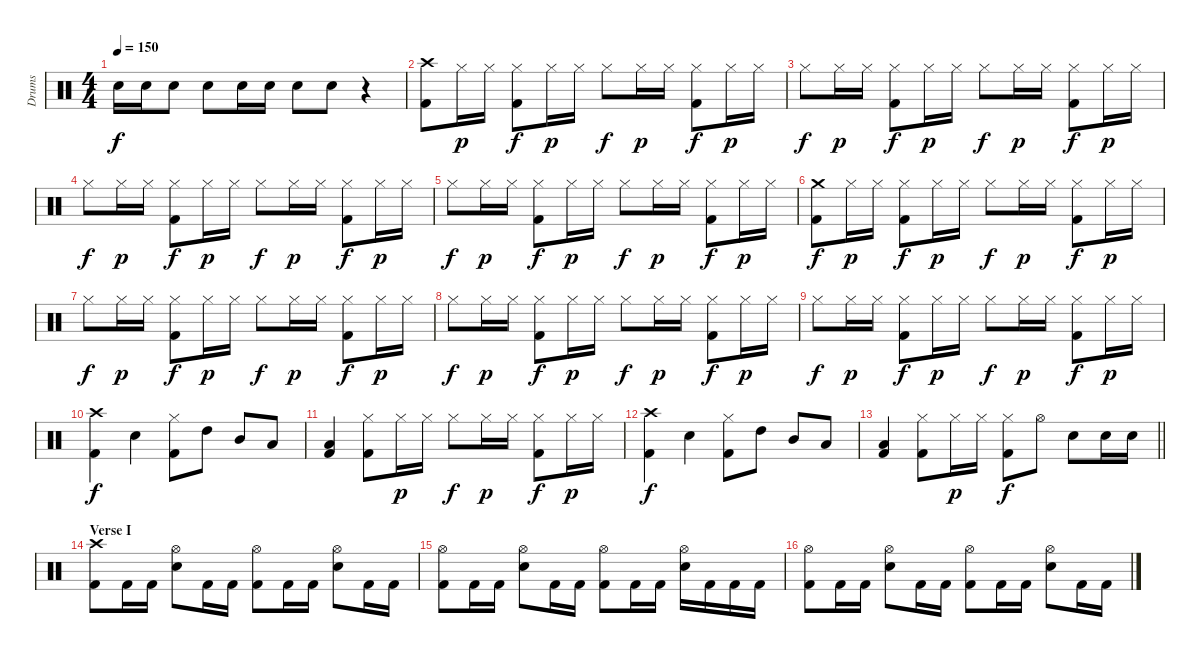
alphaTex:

\track ("Drums" "Drums") {instrument percussion}
\staff {score}
\articulation defaults
\ts (4 4)
\tempo 150
\clef neutral
\ks c "Snare (hit) 2".16{dy f} "Snare (hit) 2".16 "Snare (hit) 2".8 "Snare (hit) 2".8 "Snare (hit) 2".16 "Snare (hit) 2".16 "Snare (hit) 2".8 "Snare (hit) 2".8
r.4 |
("Crash high (hit)" "Kick (hit) 2").8 "Hi-Hat (closed)".16{dy p} "Hi-Hat (closed)".16 ("Hi-Hat (closed)" "Kick (hit) 2").8{dy f} "Hi-Hat (closed)".16{dy p} "Hi-Hat (closed)".16 "Hi-Hat (closed)".8{dy f} "Hi-Hat (closed)".16{dy p} "Hi-Hat (closed)".16 ("Hi-Hat (closed)" "Kick (hit) 2").8{dy f} "Hi-Hat (closed)".16{dy p} "Hi-Hat (closed)".16 |
"Hi-Hat (closed)".8{dy f} "Hi-Hat (closed)".16{dy p} "Hi-Hat (closed)".16 ("Hi-Hat (closed)" "Kick (hit) 2").8{dy f} "Hi-Hat (closed)".16{dy p} "Hi-Hat (closed)".16 "Hi-Hat (closed)".8{dy f} "Hi-Hat (closed)".16{dy p} "Hi-Hat (closed)".16 ("Hi-Hat (closed)" "Kick (hit) 2").8{dy f} "Hi-Hat (closed)".16{dy p} "Hi-Hat (closed)".16 |
"Hi-Hat (closed)".8{dy f} "Hi-Hat (closed)".16{dy p} "Hi-Hat (closed)".16 ("Hi-Hat (closed)" "Kick (hit) 2").8{dy f} "Hi-Hat (closed)".16{dy p} "Hi-Hat (closed)".16 "Hi-Hat (closed)".8{dy f} "Hi-Hat (closed)".16{dy p} "Hi-Hat (closed)".16 ("Hi-Hat (closed)" "Kick (hit) 2").8{dy f} "Hi-Hat (closed)".16{dy p} "Hi-Hat (closed)".16 |
"Hi-Hat (closed)".8{dy f} "Hi-Hat (closed)".16{dy p} "Hi-Hat (closed)".16 ("Hi-Hat (closed)" "Kick (hit) 2").8{dy f} "Hi-Hat (closed)".16{dy p} "Hi-Hat (closed)".16 "Hi-Hat (closed)".8{dy f} "Hi-Hat (closed)".16{dy p} "Hi-Hat (closed)".16 ("Hi-Hat (closed)" "Kick (hit) 2").8{dy f} "Hi-Hat (closed)".16{dy p} "Hi-Hat (closed)".16 |
("Crash medium (hit)" "Kick (hit) 2").8{dy f} "Hi-Hat (closed)".16{dy p} "Hi-Hat (closed)".16 ("Hi-Hat (closed)" "Kick (hit) 2").8{dy f} "Hi-Hat (closed)".16{dy p} "Hi-Hat (closed)".16 "Hi-Hat (closed)".8{dy f} "Hi-Hat (closed)".16{dy p} "Hi-Hat (closed)".16 ("Hi-Hat (closed)" "Kick (hit) 2").8{dy f} "Hi-Hat (closed)".16{dy p} "Hi-Hat (closed)".16 |
"Hi-Hat (closed)".8{dy f} "Hi-Hat (closed)".16{dy p} "Hi-Hat (closed)".16 ("Hi-Hat (closed)" "Kick (hit) 2").8{dy f} "Hi-Hat (closed)".16{dy p} "Hi-Hat (closed)".16 "Hi-Hat (closed)".8{dy f} "Hi-Hat (closed)".16{dy p} "Hi-Hat (closed)".16 ("Hi-Hat (closed)" "Kick (hit) 2").8{dy f} "Hi-Hat (closed)".16{dy p} "Hi-Hat (closed)".16 |
"Hi-Hat (closed)".8{dy f} "Hi-Hat (closed)".16{dy p} "Hi-Hat (closed)".16 ("Hi-Hat (closed)" "Kick (hit) 2").8{dy f} "Hi-Hat (closed)".16{dy p} "Hi-Hat (closed)".16 "Hi-Hat (closed)".8{dy f} "Hi-Hat (closed)".16{dy p} "Hi-Hat (closed)".16 ("Hi-Hat (closed)" "Kick (hit) 2").8{dy f} "Hi-Hat (closed)".16{dy p} "Hi-Hat (closed)".16 |
"Hi-Hat (closed)".8{dy f} "Hi-Hat (closed)".16{dy p} "Hi-Hat (closed)".16 ("Hi-Hat (closed)" "Kick (hit) 2").8{dy f} "Hi-Hat (closed)".16{dy p} "Hi-Hat (closed)".16 "Hi-Hat (closed)".8{dy f} "Hi-Hat (closed)".16{dy p} "Hi-Hat (closed)".16 ("Hi-Hat (closed)" "Kick (hit) 2").8{dy f} "Hi-Hat (closed)".16{dy p} "Hi-Hat (closed)".16 |
("Crash high (hit)" "Kick (hit) 2").4{dy f} "Snare (hit) 2".4 ("Hi-Hat (closed)" "Kick (hit) 2").8 "High Tom (hit)".8 "Mid Tom (hit)".8 "Low Tom (hit)".8 |
("Low Tom (hit)" "Kick (hit) 2").4 ("Hi-Hat (closed)" "Kick (hit) 2").8 "Hi-Hat (closed)".16{dy p} "Hi-Hat (closed)".16 "Hi-Hat (closed)".8{dy f} "Hi-Hat (closed)".16{dy p} "Hi-Hat (closed)".16 ("Hi-Hat (closed)" "Kick (hit) 2").8{dy f} "Hi-Hat (closed)".16{dy p} "Hi-Hat (closed)".16 |
("Crash high (hit)" "Kick (hit) 2").4{dy f} "Snare (hit) 2".4 ("Hi-Hat (closed)" "Kick (hit) 2").8 "High Tom (hit)".8 "Mid Tom (hit)".8 "Low Tom (hit)".8 |
\barLineRight lightlight
("Low Tom (hit)" "Kick (hit) 2").4 ("Hi-Hat (closed)" "Kick (hit) 2").8 "Hi-Hat (closed)".16{dy p} "Hi-Hat (closed)".16 ("Hi-Hat (closed)" "Kick (hit) 2").8{dy f} "Hi-Hat (open)".8 "Snare (hit) 2".8 "Snare (hit) 2".16 "Snare (hit) 2".16 |
\section ("" "Verse I")
("Crash high (hit)" "Kick (hit) 2").8 "Kick (hit) 2".16 "Kick (hit) 2".16 ("Hi-Hat (open)" "Snare (hit) 2").8 "Kick (hit) 2".16 "Kick (hit) 2".16 ("Hi-Hat (open)" "Kick (hit) 2").8 "Kick (hit) 2".16 "Kick (hit) 2".16 ("Hi-Hat (open)" "Snare (hit) 2").8 "Kick (hit) 2".16 "Kick (hit) 2".16 |
("Hi-Hat (open)" "Kick (hit) 2").8 "Kick (hit) 2".16 "Kick (hit) 2".16 ("Hi-Hat (open)" "Snare (hit) 2").8 "Kick (hit) 2".16 "Kick (hit) 2".16 ("Hi-Hat (open)" "Kick (hit) 2").8 "Kick (hit) 2".16 "Kick (hit) 2".16 ("Hi-Hat (open)" "Snare (hit) 2").16 "Kick (hit) 2".16 "Kick (hit) 2".16 "Kick (hit) 2".16 |
("Hi-Hat (open)" "Kick (hit) 2").8 "Kick (hit) 2".16 "Kick (hit) 2".16 ("Hi-Hat (open)" "Snare (hit) 2").8 "Kick (hit) 2".16 "Kick (hit) 2".16 ("Hi-Hat (open)" "Kick (hit) 2").8 "Kick (hit) 2".16 "Kick (hit) 2".16 ("Hi-Hat (open)" "Snare (hit) 2").8 "Kick (hit) 2".16 "Kick (hit) 2".16
